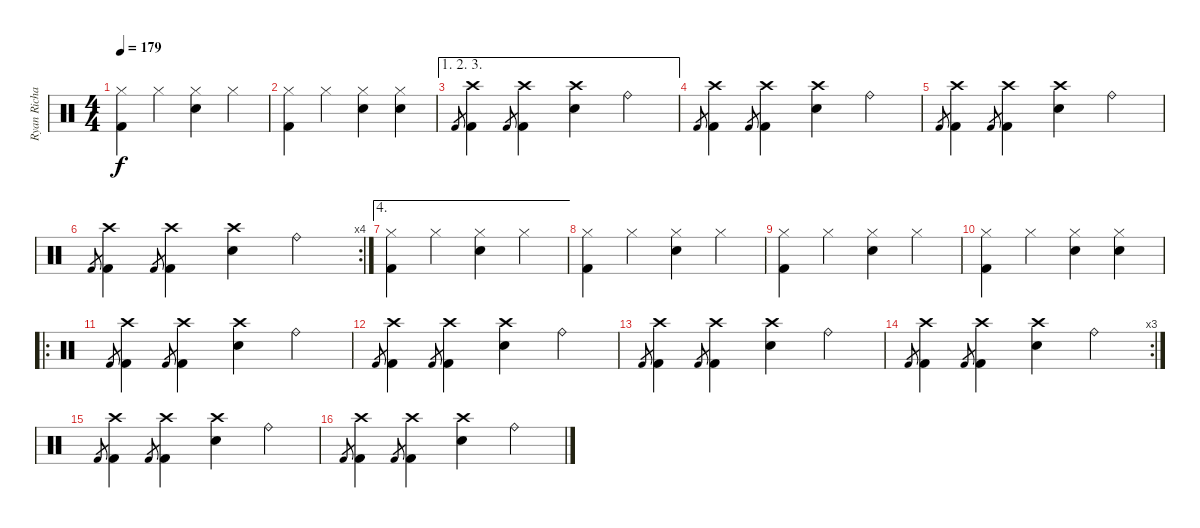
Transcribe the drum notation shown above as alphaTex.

\track ("Ryan Richards" "Ryan Richa") {instrument percussion}
\staff {score}
\articulation defaults
\ts (4 4)
\tempo 179
\clef neutral
\ks c
("Hi-Hat (closed)" "Kick (hit) 2").4{dy f} "Hi-Hat (closed)".4 ("Hi-Hat (closed)" "Snare (hit) 2").4 "Hi-Hat (closed)".4 |
("Hi-Hat (closed)" "Kick (hit) 2").4 "Hi-Hat (closed)".4 ("Hi-Hat (closed)" "Snare (hit) 2").4 ("Hi-Hat (closed)" "Snare (hit) 2").4 |
\ae (1 2 3)
"Kick (hit) 2".8{gr} ("Crash high (hit)" "Kick (hit) 2").4 "Kick (hit) 2".8{gr} ("Crash high (hit)" "Kick (hit) 2").4 ("Crash high (hit)" "Snare (hit) 2").4 "Ride (bell)".4 |
"Kick (hit) 2".8{gr} ("Crash high (hit)" "Kick (hit) 2").4 "Kick (hit) 2".8{gr} ("Crash high (hit)" "Kick (hit) 2").4 ("Crash high (hit)" "Snare (hit) 2").4 "Ride (bell)".4 |
"Kick (hit) 2".8{gr} ("Crash high (hit)" "Kick (hit) 2").4 "Kick (hit) 2".8{gr} ("Crash high (hit)" "Kick (hit) 2").4 ("Crash high (hit)" "Snare (hit) 2").4 "Ride (bell)".4 |
\rc 4 "Kick (hit) 2".8{gr}
("Crash high (hit)" "Kick (hit) 2").4 "Kick (hit) 2".8{gr} ("Crash high (hit)" "Kick (hit) 2").4 ("Crash high (hit)" "Snare (hit) 2").4 "Ride (bell)".4 |
\ae 4
("Hi-Hat (closed)" "Kick (hit) 2").4 "Hi-Hat (closed)".4 ("Hi-Hat (closed)" "Snare (hit) 2").4 "Hi-Hat (closed)".4 |
("Hi-Hat (closed)" "Kick (hit) 2").4 "Hi-Hat (closed)".4 ("Hi-Hat (closed)" "Snare (hit) 2").4 "Hi-Hat (closed)".4 |
("Hi-Hat (closed)" "Kick (hit) 2").4 "Hi-Hat (closed)".4 ("Hi-Hat (closed)" "Snare (hit) 2").4 "Hi-Hat (closed)".4 |
("Hi-Hat (closed)" "Kick (hit) 2").4 "Hi-Hat (closed)".4 ("Hi-Hat (closed)" "Snare (hit) 2").4 ("Hi-Hat (closed)" "Snare (hit) 2").4 |
\ro "Kick (hit) 2".8{gr}
("Crash high (hit)" "Kick (hit) 2").4 "Kick (hit) 2".8{gr} ("Crash high (hit)" "Kick (hit) 2").4 ("Crash high (hit)" "Snare (hit) 2").4 "Ride (bell)".4 |
"Kick (hit) 2".8{gr} ("Crash high (hit)" "Kick (hit) 2").4 "Kick (hit) 2".8{gr} ("Crash high (hit)" "Kick (hit) 2").4 ("Crash high (hit)" "Snare (hit) 2").4 "Ride (bell)".4 |
"Kick (hit) 2".8{gr} ("Crash high (hit)" "Kick (hit) 2").4 "Kick (hit) 2".8{gr} ("Crash high (hit)" "Kick (hit) 2").4 ("Crash high (hit)" "Snare (hit) 2").4 "Ride (bell)".4 |
\rc 3 "Kick (hit) 2".8{gr}
("Crash high (hit)" "Kick (hit) 2").4 "Kick (hit) 2".8{gr} ("Crash high (hit)" "Kick (hit) 2").4 ("Crash high (hit)" "Snare (hit) 2").4 "Ride (bell)".4 |
"Kick (hit) 2".8{gr} ("Crash high (hit)" "Kick (hit) 2").4 "Kick (hit) 2".8{gr} ("Crash high (hit)" "Kick (hit) 2").4 ("Crash high (hit)" "Snare (hit) 2").4 "Ride (bell)".4 |
"Kick (hit) 2".8{gr} ("Crash high (hit)" "Kick (hit) 2").4 "Kick (hit) 2".8{gr} ("Crash high (hit)" "Kick (hit) 2").4 ("Crash high (hit)" "Snare (hit) 2").4 "Ride (bell)".4
